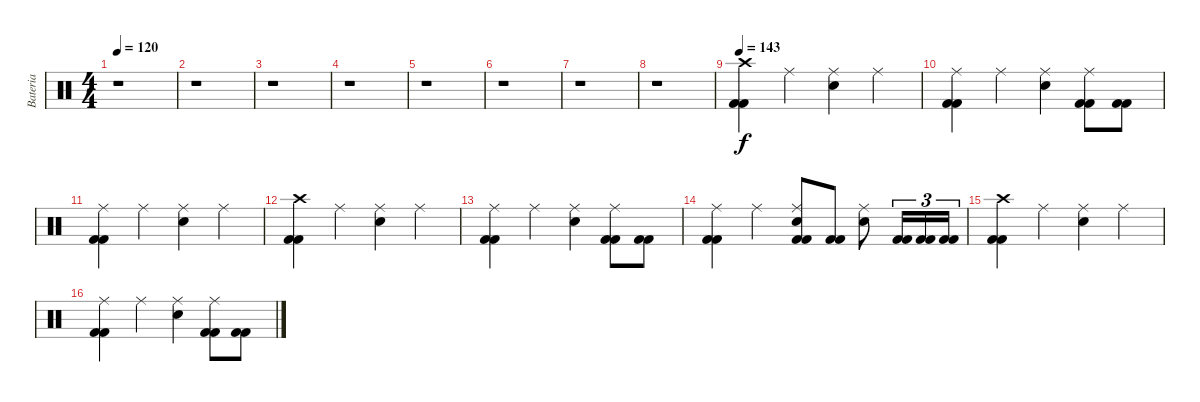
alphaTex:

\track ("Bateria" "Bateria") {instrument percussion}
\staff {score}
\articulation defaults
\ts (4 4)
\tempo 120
\clef neutral
\ks c
r.1{dy mf} |
r.1 |
r.1 |
r.1 |
r.1 |
r.1 |
r.1 |
r.1 |
\tempo 143
("Kick (hit) 2" "Kick (hit) 2" "Crash high (hit)").4{dy f} "Ride (middle)".4 ("Snare (hit) 2" "Ride (middle)").4 "Ride (middle)".4 |
("Kick (hit) 2" "Kick (hit) 2" "Ride (middle)").4 "Ride (middle)".4 ("Snare (hit) 2" "Ride (middle)").4 ("Kick (hit) 2" "Kick (hit) 2" "Ride (middle)").8 ("Kick (hit) 2" "Kick (hit) 2").8 |
("Kick (hit) 2" "Kick (hit) 2" "Ride (middle)").4 "Ride (middle)".4 ("Snare (hit) 2" "Ride (middle)").4 "Ride (middle)".4 |
("Kick (hit) 2" "Kick (hit) 2" "Crash high (hit)").4 "Ride (middle)".4 ("Snare (hit) 2" "Ride (middle)").4 "Ride (middle)".4 |
("Kick (hit) 2" "Kick (hit) 2" "Ride (middle)").4 "Ride (middle)".4 ("Snare (hit) 2" "Ride (middle)").4 ("Kick (hit) 2" "Kick (hit) 2" "Ride (middle)").8 ("Kick (hit) 2" "Kick (hit) 2").8 |
("Kick (hit) 2" "Kick (hit) 2" "Ride (middle)").4 "Ride (middle)".4 ("Kick (hit) 2" "Kick (hit) 2" "Snare (hit) 2" "Ride (middle)").8 ("Kick (hit) 2" "Kick (hit) 2").8 ("Snare (hit) 2" "Ride (middle)").8 ("Kick (hit) 2" "Kick (hit) 2").16{tu (3 2)} ("Kick (hit) 2" "Kick (hit) 2").16{tu (3 2)} ("Kick (hit) 2" "Kick (hit) 2").16{tu (3 2)} |
("Kick (hit) 2" "Kick (hit) 2" "Crash high (hit)").4 "Ride (middle)".4 ("Snare (hit) 2" "Ride (middle)").4 "Ride (middle)".4 |
("Kick (hit) 2" "Kick (hit) 2" "Ride (middle)").4 "Ride (middle)".4 ("Snare (hit) 2" "Ride (middle)").4 ("Kick (hit) 2" "Kick (hit) 2" "Ride (middle)").8 ("Kick (hit) 2" "Kick (hit) 2").8
